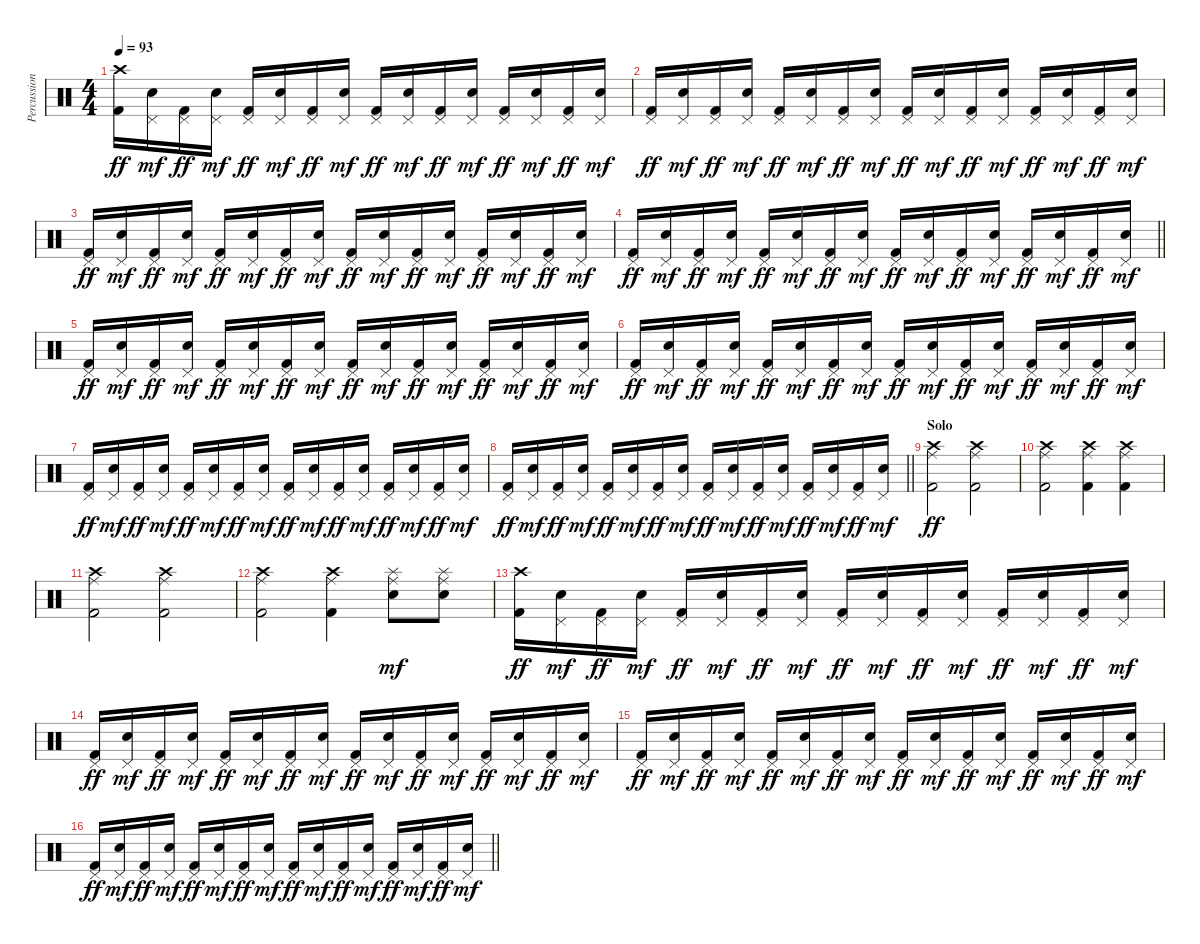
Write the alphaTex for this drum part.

\track ("Percussion" "Percussion") {instrument percussion}
\staff {score}
\articulation defaults
\ts (4 4)
\tempo 93
\clef neutral
\ks c
("Crash high (hit)" "Kick (hit) 2").16{dy ff} ("Pedal Hi-Hat (hit)" "Electric Snare (hit)").16{dy mf} ("Pedal Hi-Hat (hit)" "Kick (hit) 2").16{dy ff} ("Pedal Hi-Hat (hit)" "Electric Snare (hit)").16{dy mf} ("Pedal Hi-Hat (hit)" "Kick (hit) 2").16{dy ff} ("Pedal Hi-Hat (hit)" "Electric Snare (hit)").16{dy mf} ("Pedal Hi-Hat (hit)" "Kick (hit) 2").16{dy ff} ("Pedal Hi-Hat (hit)" "Electric Snare (hit)").16{dy mf} ("Pedal Hi-Hat (hit)" "Kick (hit) 2").16{dy ff} ("Pedal Hi-Hat (hit)" "Electric Snare (hit)").16{dy mf} ("Pedal Hi-Hat (hit)" "Kick (hit) 2").16{dy ff} ("Pedal Hi-Hat (hit)" "Electric Snare (hit)").16{dy mf} ("Pedal Hi-Hat (hit)" "Kick (hit) 2").16{dy ff} ("Pedal Hi-Hat (hit)" "Electric Snare (hit)").16{dy mf} ("Pedal Hi-Hat (hit)" "Kick (hit) 2").16{dy ff} ("Pedal Hi-Hat (hit)" "Electric Snare (hit)").16{dy mf} |
("Pedal Hi-Hat (hit)" "Kick (hit) 2").16{dy ff} ("Pedal Hi-Hat (hit)" "Electric Snare (hit)").16{dy mf} ("Pedal Hi-Hat (hit)" "Kick (hit) 2").16{dy ff} ("Pedal Hi-Hat (hit)" "Electric Snare (hit)").16{dy mf} ("Pedal Hi-Hat (hit)" "Kick (hit) 2").16{dy ff} ("Pedal Hi-Hat (hit)" "Electric Snare (hit)").16{dy mf} ("Pedal Hi-Hat (hit)" "Kick (hit) 2").16{dy ff} ("Pedal Hi-Hat (hit)" "Electric Snare (hit)").16{dy mf} ("Pedal Hi-Hat (hit)" "Kick (hit) 2").16{dy ff} ("Pedal Hi-Hat (hit)" "Electric Snare (hit)").16{dy mf} ("Pedal Hi-Hat (hit)" "Kick (hit) 2").16{dy ff} ("Pedal Hi-Hat (hit)" "Electric Snare (hit)").16{dy mf} ("Pedal Hi-Hat (hit)" "Kick (hit) 2").16{dy ff} ("Pedal Hi-Hat (hit)" "Electric Snare (hit)").16{dy mf} ("Pedal Hi-Hat (hit)" "Kick (hit) 2").16{dy ff} ("Pedal Hi-Hat (hit)" "Electric Snare (hit)").16{dy mf} |
("Pedal Hi-Hat (hit)" "Kick (hit) 2").16{dy ff} ("Pedal Hi-Hat (hit)" "Electric Snare (hit)").16{dy mf} ("Pedal Hi-Hat (hit)" "Kick (hit) 2").16{dy ff} ("Pedal Hi-Hat (hit)" "Electric Snare (hit)").16{dy mf} ("Pedal Hi-Hat (hit)" "Kick (hit) 2").16{dy ff} ("Pedal Hi-Hat (hit)" "Electric Snare (hit)").16{dy mf} ("Pedal Hi-Hat (hit)" "Kick (hit) 2").16{dy ff} ("Pedal Hi-Hat (hit)" "Electric Snare (hit)").16{dy mf} ("Pedal Hi-Hat (hit)" "Kick (hit) 2").16{dy ff} ("Pedal Hi-Hat (hit)" "Electric Snare (hit)").16{dy mf} ("Pedal Hi-Hat (hit)" "Kick (hit) 2").16{dy ff} ("Pedal Hi-Hat (hit)" "Electric Snare (hit)").16{dy mf} ("Pedal Hi-Hat (hit)" "Kick (hit) 2").16{dy ff} ("Pedal Hi-Hat (hit)" "Electric Snare (hit)").16{dy mf} ("Pedal Hi-Hat (hit)" "Kick (hit) 2").16{dy ff} ("Pedal Hi-Hat (hit)" "Electric Snare (hit)").16{dy mf} |
\barLineRight lightlight
("Pedal Hi-Hat (hit)" "Kick (hit) 2").16{dy ff} ("Pedal Hi-Hat (hit)" "Electric Snare (hit)").16{dy mf} ("Pedal Hi-Hat (hit)" "Kick (hit) 2").16{dy ff} ("Pedal Hi-Hat (hit)" "Electric Snare (hit)").16{dy mf} ("Pedal Hi-Hat (hit)" "Kick (hit) 2").16{dy ff} ("Pedal Hi-Hat (hit)" "Electric Snare (hit)").16{dy mf} ("Pedal Hi-Hat (hit)" "Kick (hit) 2").16{dy ff} ("Pedal Hi-Hat (hit)" "Electric Snare (hit)").16{dy mf} ("Pedal Hi-Hat (hit)" "Kick (hit) 2").16{dy ff} ("Pedal Hi-Hat (hit)" "Electric Snare (hit)").16{dy mf} ("Pedal Hi-Hat (hit)" "Kick (hit) 2").16{dy ff} ("Pedal Hi-Hat (hit)" "Electric Snare (hit)").16{dy mf} ("Pedal Hi-Hat (hit)" "Kick (hit) 2").16{dy ff} ("Pedal Hi-Hat (hit)" "Electric Snare (hit)").16{dy mf} ("Pedal Hi-Hat (hit)" "Kick (hit) 2").16{dy ff} ("Pedal Hi-Hat (hit)" "Electric Snare (hit)").16{dy mf} |
("Pedal Hi-Hat (hit)" "Kick (hit) 2").16{dy ff} ("Pedal Hi-Hat (hit)" "Electric Snare (hit)").16{dy mf} ("Pedal Hi-Hat (hit)" "Kick (hit) 2").16{dy ff} ("Pedal Hi-Hat (hit)" "Electric Snare (hit)").16{dy mf} ("Pedal Hi-Hat (hit)" "Kick (hit) 2").16{dy ff} ("Pedal Hi-Hat (hit)" "Electric Snare (hit)").16{dy mf} ("Pedal Hi-Hat (hit)" "Kick (hit) 2").16{dy ff} ("Pedal Hi-Hat (hit)" "Electric Snare (hit)").16{dy mf} ("Pedal Hi-Hat (hit)" "Kick (hit) 2").16{dy ff} ("Pedal Hi-Hat (hit)" "Electric Snare (hit)").16{dy mf} ("Pedal Hi-Hat (hit)" "Kick (hit) 2").16{dy ff} ("Pedal Hi-Hat (hit)" "Electric Snare (hit)").16{dy mf} ("Pedal Hi-Hat (hit)" "Kick (hit) 2").16{dy ff} ("Pedal Hi-Hat (hit)" "Electric Snare (hit)").16{dy mf} ("Pedal Hi-Hat (hit)" "Kick (hit) 2").16{dy ff} ("Pedal Hi-Hat (hit)" "Electric Snare (hit)").16{dy mf} |
("Pedal Hi-Hat (hit)" "Kick (hit) 2").16{dy ff} ("Pedal Hi-Hat (hit)" "Electric Snare (hit)").16{dy mf} ("Pedal Hi-Hat (hit)" "Kick (hit) 2").16{dy ff} ("Pedal Hi-Hat (hit)" "Electric Snare (hit)").16{dy mf} ("Pedal Hi-Hat (hit)" "Kick (hit) 2").16{dy ff} ("Pedal Hi-Hat (hit)" "Electric Snare (hit)").16{dy mf} ("Pedal Hi-Hat (hit)" "Kick (hit) 2").16{dy ff} ("Pedal Hi-Hat (hit)" "Electric Snare (hit)").16{dy mf} ("Pedal Hi-Hat (hit)" "Kick (hit) 2").16{dy ff} ("Pedal Hi-Hat (hit)" "Electric Snare (hit)").16{dy mf} ("Pedal Hi-Hat (hit)" "Kick (hit) 2").16{dy ff} ("Pedal Hi-Hat (hit)" "Electric Snare (hit)").16{dy mf} ("Pedal Hi-Hat (hit)" "Kick (hit) 2").16{dy ff} ("Pedal Hi-Hat (hit)" "Electric Snare (hit)").16{dy mf} ("Pedal Hi-Hat (hit)" "Kick (hit) 2").16{dy ff} ("Pedal Hi-Hat (hit)" "Electric Snare (hit)").16{dy mf} |
("Pedal Hi-Hat (hit)" "Kick (hit) 2").16{dy ff} ("Pedal Hi-Hat (hit)" "Electric Snare (hit)").16{dy mf} ("Pedal Hi-Hat (hit)" "Kick (hit) 2").16{dy ff} ("Pedal Hi-Hat (hit)" "Electric Snare (hit)").16{dy mf} ("Pedal Hi-Hat (hit)" "Kick (hit) 2").16{dy ff} ("Pedal Hi-Hat (hit)" "Electric Snare (hit)").16{dy mf} ("Pedal Hi-Hat (hit)" "Kick (hit) 2").16{dy ff} ("Pedal Hi-Hat (hit)" "Electric Snare (hit)").16{dy mf} ("Pedal Hi-Hat (hit)" "Kick (hit) 2").16{dy ff} ("Pedal Hi-Hat (hit)" "Electric Snare (hit)").16{dy mf} ("Pedal Hi-Hat (hit)" "Kick (hit) 2").16{dy ff} ("Pedal Hi-Hat (hit)" "Electric Snare (hit)").16{dy mf} ("Pedal Hi-Hat (hit)" "Kick (hit) 2").16{dy ff} ("Pedal Hi-Hat (hit)" "Electric Snare (hit)").16{dy mf} ("Pedal Hi-Hat (hit)" "Kick (hit) 2").16{dy ff} ("Pedal Hi-Hat (hit)" "Electric Snare (hit)").16{dy mf} |
\barLineRight lightlight
("Pedal Hi-Hat (hit)" "Kick (hit) 2").16{dy ff} ("Pedal Hi-Hat (hit)" "Electric Snare (hit)").16{dy mf} ("Pedal Hi-Hat (hit)" "Kick (hit) 2").16{dy ff} ("Pedal Hi-Hat (hit)" "Electric Snare (hit)").16{dy mf} ("Pedal Hi-Hat (hit)" "Kick (hit) 2").16{dy ff} ("Pedal Hi-Hat (hit)" "Electric Snare (hit)").16{dy mf} ("Pedal Hi-Hat (hit)" "Kick (hit) 2").16{dy ff} ("Pedal Hi-Hat (hit)" "Electric Snare (hit)").16{dy mf} ("Pedal Hi-Hat (hit)" "Kick (hit) 2").16{dy ff} ("Pedal Hi-Hat (hit)" "Electric Snare (hit)").16{dy mf} ("Pedal Hi-Hat (hit)" "Kick (hit) 2").16{dy ff} ("Pedal Hi-Hat (hit)" "Electric Snare (hit)").16{dy mf} ("Pedal Hi-Hat (hit)" "Kick (hit) 2").16{dy ff} ("Pedal Hi-Hat (hit)" "Electric Snare (hit)").16{dy mf} ("Pedal Hi-Hat (hit)" "Kick (hit) 2").16{dy ff} ("Pedal Hi-Hat (hit)" "Electric Snare (hit)").16{dy mf} |
\section ("" "Solo")
("Crash high (hit)" "Ride (middle)" "Kick (hit) 2").2{dy ff} ("Crash high (hit)" "Ride (middle)" "Kick (hit) 2").2 |
("Crash high (hit)" "Ride (middle)" "Kick (hit) 2").2 ("Crash high (hit)" "Ride (middle)" "Kick (hit) 2").4 ("Crash high (hit)" "Ride (middle)" "Kick (hit) 2").4 |
("Crash high (hit)" "Ride (middle)" "Kick (hit) 2").2 ("Crash high (hit)" "Ride (middle)" "Kick (hit) 2").2 |
("Crash high (hit)" "Ride (middle)" "Kick (hit) 2").2 ("Crash high (hit)" "Ride (middle)" "Kick (hit) 2").4 ("Splash (hit)" "Ride (middle)" "Electric Snare (hit)").8{dy mf} ("Splash (hit)" "Ride (middle)" "Electric Snare (hit)").8 |
("Crash high (hit)" "Kick (hit) 2").16{dy ff} ("Pedal Hi-Hat (hit)" "Electric Snare (hit)").16{dy mf} ("Pedal Hi-Hat (hit)" "Kick (hit) 2").16{dy ff} ("Pedal Hi-Hat (hit)" "Electric Snare (hit)").16{dy mf} ("Pedal Hi-Hat (hit)" "Kick (hit) 2").16{dy ff} ("Pedal Hi-Hat (hit)" "Electric Snare (hit)").16{dy mf} ("Pedal Hi-Hat (hit)" "Kick (hit) 2").16{dy ff} ("Pedal Hi-Hat (hit)" "Electric Snare (hit)").16{dy mf} ("Pedal Hi-Hat (hit)" "Kick (hit) 2").16{dy ff} ("Pedal Hi-Hat (hit)" "Electric Snare (hit)").16{dy mf} ("Pedal Hi-Hat (hit)" "Kick (hit) 2").16{dy ff} ("Pedal Hi-Hat (hit)" "Electric Snare (hit)").16{dy mf} ("Pedal Hi-Hat (hit)" "Kick (hit) 2").16{dy ff} ("Pedal Hi-Hat (hit)" "Electric Snare (hit)").16{dy mf} ("Pedal Hi-Hat (hit)" "Kick (hit) 2").16{dy ff} ("Pedal Hi-Hat (hit)" "Electric Snare (hit)").16{dy mf} |
("Pedal Hi-Hat (hit)" "Kick (hit) 2").16{dy ff} ("Pedal Hi-Hat (hit)" "Electric Snare (hit)").16{dy mf} ("Pedal Hi-Hat (hit)" "Kick (hit) 2").16{dy ff} ("Pedal Hi-Hat (hit)" "Electric Snare (hit)").16{dy mf} ("Pedal Hi-Hat (hit)" "Kick (hit) 2").16{dy ff} ("Pedal Hi-Hat (hit)" "Electric Snare (hit)").16{dy mf} ("Pedal Hi-Hat (hit)" "Kick (hit) 2").16{dy ff} ("Pedal Hi-Hat (hit)" "Electric Snare (hit)").16{dy mf} ("Pedal Hi-Hat (hit)" "Kick (hit) 2").16{dy ff} ("Pedal Hi-Hat (hit)" "Electric Snare (hit)").16{dy mf} ("Pedal Hi-Hat (hit)" "Kick (hit) 2").16{dy ff} ("Pedal Hi-Hat (hit)" "Electric Snare (hit)").16{dy mf} ("Pedal Hi-Hat (hit)" "Kick (hit) 2").16{dy ff} ("Pedal Hi-Hat (hit)" "Electric Snare (hit)").16{dy mf} ("Pedal Hi-Hat (hit)" "Kick (hit) 2").16{dy ff} ("Pedal Hi-Hat (hit)" "Electric Snare (hit)").16{dy mf} |
("Pedal Hi-Hat (hit)" "Kick (hit) 2").16{dy ff} ("Pedal Hi-Hat (hit)" "Electric Snare (hit)").16{dy mf} ("Pedal Hi-Hat (hit)" "Kick (hit) 2").16{dy ff} ("Pedal Hi-Hat (hit)" "Electric Snare (hit)").16{dy mf} ("Pedal Hi-Hat (hit)" "Kick (hit) 2").16{dy ff} ("Pedal Hi-Hat (hit)" "Electric Snare (hit)").16{dy mf} ("Pedal Hi-Hat (hit)" "Kick (hit) 2").16{dy ff} ("Pedal Hi-Hat (hit)" "Electric Snare (hit)").16{dy mf} ("Pedal Hi-Hat (hit)" "Kick (hit) 2").16{dy ff} ("Pedal Hi-Hat (hit)" "Electric Snare (hit)").16{dy mf} ("Pedal Hi-Hat (hit)" "Kick (hit) 2").16{dy ff} ("Pedal Hi-Hat (hit)" "Electric Snare (hit)").16{dy mf} ("Pedal Hi-Hat (hit)" "Kick (hit) 2").16{dy ff} ("Pedal Hi-Hat (hit)" "Electric Snare (hit)").16{dy mf} ("Pedal Hi-Hat (hit)" "Kick (hit) 2").16{dy ff} ("Pedal Hi-Hat (hit)" "Electric Snare (hit)").16{dy mf} |
\barLineRight lightlight
("Pedal Hi-Hat (hit)" "Kick (hit) 2").16{dy ff} ("Pedal Hi-Hat (hit)" "Electric Snare (hit)").16{dy mf} ("Pedal Hi-Hat (hit)" "Kick (hit) 2").16{dy ff} ("Pedal Hi-Hat (hit)" "Electric Snare (hit)").16{dy mf} ("Pedal Hi-Hat (hit)" "Kick (hit) 2").16{dy ff} ("Pedal Hi-Hat (hit)" "Electric Snare (hit)").16{dy mf} ("Pedal Hi-Hat (hit)" "Kick (hit) 2").16{dy ff} ("Pedal Hi-Hat (hit)" "Electric Snare (hit)").16{dy mf} ("Pedal Hi-Hat (hit)" "Kick (hit) 2").16{dy ff} ("Pedal Hi-Hat (hit)" "Electric Snare (hit)").16{dy mf} ("Pedal Hi-Hat (hit)" "Kick (hit) 2").16{dy ff} ("Pedal Hi-Hat (hit)" "Electric Snare (hit)").16{dy mf} ("Pedal Hi-Hat (hit)" "Kick (hit) 2").16{dy ff} ("Pedal Hi-Hat (hit)" "Electric Snare (hit)").16{dy mf} ("Pedal Hi-Hat (hit)" "Kick (hit) 2").16{dy ff} ("Pedal Hi-Hat (hit)" "Electric Snare (hit)").16{dy mf}
